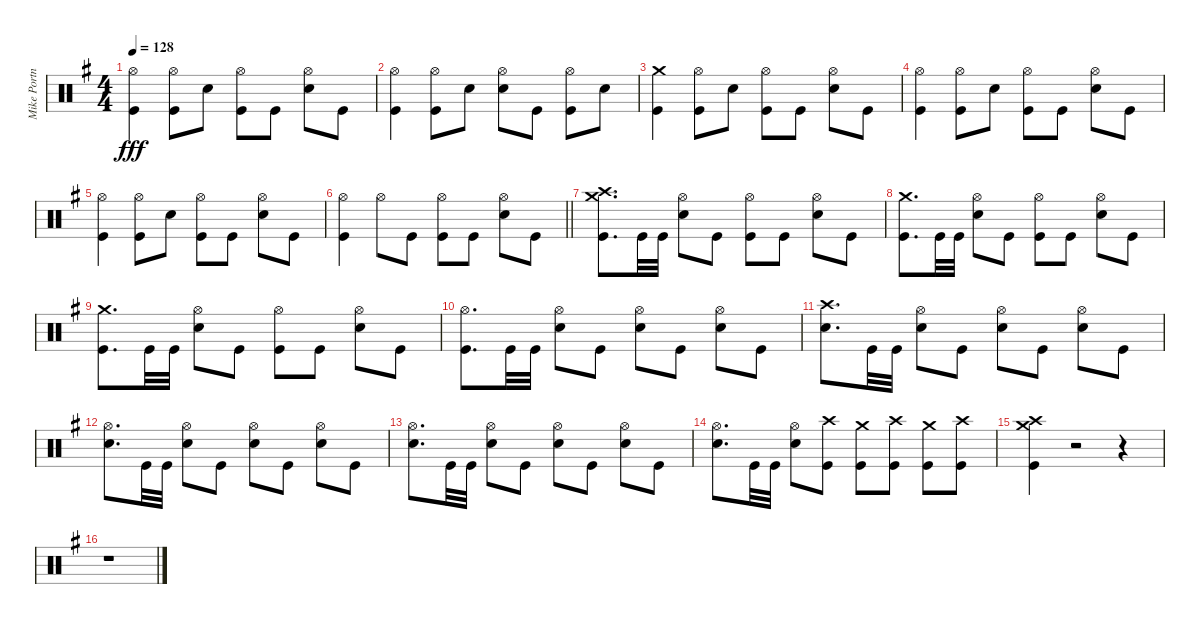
\track ("Mike Portnoy" "Mike Portn") {instrument percussion}
\staff {score}
\articulation defaults
\ts (4 4)
\tempo 128
\clef neutral
\ks eminor
("Kick (hit)" "Hi-Hat (open)").4{dy fff} ("Kick (hit)" "Hi-Hat (open)").8 "Snare (hit) 2".8 ("Kick (hit)" "Hi-Hat (open)").8 "Kick (hit)".8 ("Snare (hit) 2" "Hi-Hat (open)").8 "Kick (hit)".8 |
("Kick (hit)" "Hi-Hat (open)").4 ("Kick (hit)" "Hi-Hat (open)").8 "Snare (hit) 2".8 ("Snare (hit) 2" "Hi-Hat (open)").8 "Kick (hit)".8 ("Kick (hit)" "Hi-Hat (open)").8 "Snare (hit) 2".8 |
("Kick (hit)" "Crash medium (hit)").4 ("Kick (hit)" "Hi-Hat (open)").8 "Snare (hit) 2".8 ("Kick (hit)" "Hi-Hat (open)").8 "Kick (hit)".8 ("Snare (hit) 2" "Hi-Hat (open)").8 "Kick (hit)".8 |
("Kick (hit)" "Hi-Hat (open)").4 ("Kick (hit)" "Hi-Hat (open)").8 "Snare (hit) 2".8 ("Kick (hit)" "Hi-Hat (open)").8 "Kick (hit)".8 ("Snare (hit) 2" "Hi-Hat (open)").8 "Kick (hit)".8 |
("Kick (hit)" "Hi-Hat (open)").4 ("Kick (hit)" "Hi-Hat (open)").8 "Snare (hit) 2".8 ("Kick (hit)" "Hi-Hat (open)").8 "Kick (hit)".8 ("Snare (hit) 2" "Hi-Hat (open)").8 "Kick (hit)".8 |
\barLineRight lightlight
("Kick (hit)" "Hi-Hat (open)").4 "Hi-Hat (open)".8 "Kick (hit)".8 ("Kick (hit)" "Hi-Hat (open)").8 "Kick (hit)".8 ("Snare (hit) 2" "Hi-Hat (open)").8 "Kick (hit)".8 |
("Kick (hit)" "Crash medium (hit)" "Crash high (hit)").8{d} "Kick (hit)".32 "Kick (hit)".32 ("Snare (hit) 2" "Hi-Hat (open)").8 "Kick (hit)".8 ("Kick (hit)" "Hi-Hat (open)").8 "Kick (hit)".8 ("Snare (hit) 2" "Hi-Hat (open)").8 "Kick (hit)".8 |
("Kick (hit)" "Crash medium (hit)").8{d} "Kick (hit)".32 "Kick (hit)".32 ("Snare (hit) 2" "Hi-Hat (open)").8 "Kick (hit)".8 ("Kick (hit)" "Hi-Hat (open)").8 "Kick (hit)".8 ("Snare (hit) 2" "Hi-Hat (open)").8 "Kick (hit)".8 |
("Kick (hit)" "Crash medium (hit)").8{d} "Kick (hit)".32 "Kick (hit)".32 ("Snare (hit) 2" "Hi-Hat (open)").8 "Kick (hit)".8 ("Kick (hit)" "Hi-Hat (open)").8 "Kick (hit)".8 ("Snare (hit) 2" "Hi-Hat (open)").8 "Kick (hit)".8 |
("Kick (hit)" "Hi-Hat (open)").8{d} "Kick (hit)".32 "Kick (hit)".32 ("Snare (hit) 2" "Hi-Hat (open)").8 "Kick (hit)".8 ("Snare (hit) 2" "Hi-Hat (open)").8 "Kick (hit)".8 ("Snare (hit) 2" "Hi-Hat (open)").8 "Kick (hit)".8 |
("Snare (hit) 2" "Crash high (hit)").8{d} "Kick (hit)".32 "Kick (hit)".32 ("Snare (hit) 2" "Hi-Hat (open)").8 "Kick (hit)".8 ("Snare (hit) 2" "Hi-Hat (open)").8 "Kick (hit)".8 ("Snare (hit) 2" "Hi-Hat (open)").8 "Kick (hit)".8 |
("Snare (hit) 2" "Hi-Hat (open)").8{d} "Kick (hit)".32 "Kick (hit)".32 ("Snare (hit) 2" "Hi-Hat (open)").8 "Kick (hit)".8 ("Snare (hit) 2" "Hi-Hat (open)").8 "Kick (hit)".8 ("Snare (hit) 2" "Hi-Hat (open)").8 "Kick (hit)".8 |
("Snare (hit) 2" "Hi-Hat (open)").8{d} "Kick (hit)".32 "Kick (hit)".32 ("Snare (hit) 2" "Hi-Hat (open)").8 "Kick (hit)".8 ("Snare (hit) 2" "Hi-Hat (open)").8 "Kick (hit)".8 ("Snare (hit) 2" "Hi-Hat (open)").8 "Kick (hit)".8 |
("Snare (hit) 2" "Hi-Hat (open)").8{d} "Kick (hit)".32 "Kick (hit)".32 ("Snare (hit) 2" "Hi-Hat (open)").8 ("Kick (hit)" "Crash high (hit)").8 ("Kick (hit)" "Crash medium (hit)").8 ("Kick (hit)" "Crash high (hit)").8 ("Kick (hit)" "Crash medium (hit)").8 ("Kick (hit)" "Crash high (hit)").8 |
("Kick (hit)" "Crash medium (hit)" "Crash high (hit)").4 r.2 r.4 |
r.1
